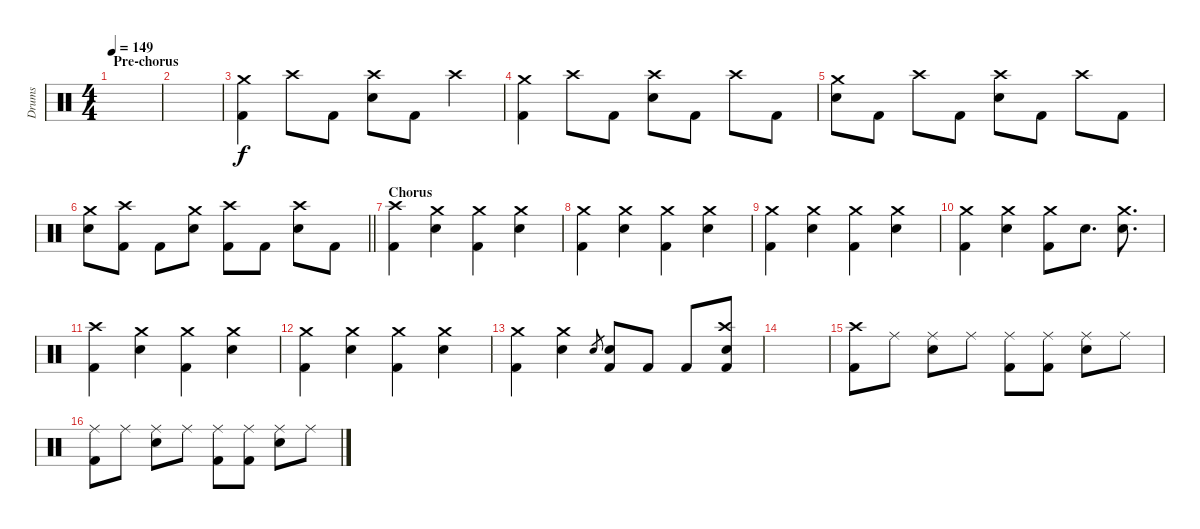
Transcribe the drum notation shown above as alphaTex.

\track ("Drums" "Drums") {instrument percussion}
\staff {score}
\articulation defaults
\ts (4 4)
\section ("" "Pre-chorus")
\tempo 149
\clef neutral
\ks c
|
|
("Crash medium (hit)" "Kick (hit) 2").4 "Crash high (hit)".8 "Kick (hit) 2".8 ("Crash high (hit)" "Electric Snare (hit)").8 "Kick (hit) 2".8 "Crash high (hit)".4 |
("Crash medium (hit)" "Kick (hit) 2").4 "Crash high (hit)".8 "Kick (hit) 2".8 ("Crash high (hit)" "Electric Snare (hit)").8 "Kick (hit) 2".8 "Crash high (hit)".8 "Kick (hit) 2".8 |
("Crash medium (hit)" "Electric Snare (hit)").8 "Kick (hit) 2".8 "Crash high (hit)".8 "Kick (hit) 2".8 ("Crash high (hit)" "Electric Snare (hit)").8 "Kick (hit) 2".8 "Crash high (hit)".8 "Kick (hit) 2".8 |
\barLineRight lightlight
("Crash medium (hit)" "Electric Snare (hit)").8 ("Crash high (hit)" "Kick (hit) 2").8 "Kick (hit) 2".8 ("Crash medium (hit)" "Electric Snare (hit)").8 ("Crash high (hit)" "Kick (hit) 2").8 "Kick (hit) 2".8 ("Crash high (hit)" "Electric Snare (hit)").8 "Kick (hit) 2".8 |
\section ("" "Chorus")
("Crash high (hit)" "Kick (hit) 2").4 ("Crash medium (hit)" "Electric Snare (hit)").4 ("Crash medium (hit)" "Kick (hit) 2").4 ("Crash medium (hit)" "Electric Snare (hit)").4 |
("Crash medium (hit)" "Kick (hit) 2").4 ("Crash medium (hit)" "Electric Snare (hit)").4 ("Crash medium (hit)" "Kick (hit) 2").4 ("Crash medium (hit)" "Electric Snare (hit)").4 |
("Crash medium (hit)" "Kick (hit) 2").4 ("Crash medium (hit)" "Electric Snare (hit)").4 ("Crash medium (hit)" "Kick (hit) 2").4 ("Crash medium (hit)" "Electric Snare (hit)").4 |
("Crash medium (hit)" "Kick (hit) 2").4 ("Crash medium (hit)" "Electric Snare (hit)").4 ("Crash medium (hit)" "Kick (hit) 2").8 "Electric Snare (hit)".8{d} ("Crash medium (hit)" "Electric Snare (hit)").8{d} |
("Crash high (hit)" "Kick (hit) 2").4 ("Crash medium (hit)" "Electric Snare (hit)").4 ("Crash medium (hit)" "Kick (hit) 2").4 ("Crash medium (hit)" "Electric Snare (hit)").4 |
("Crash medium (hit)" "Kick (hit) 2").4 ("Crash medium (hit)" "Electric Snare (hit)").4 ("Crash medium (hit)" "Kick (hit) 2").4 ("Crash medium (hit)" "Electric Snare (hit)").4 |
("Crash medium (hit)" "Kick (hit) 2").4 ("Crash medium (hit)" "Electric Snare (hit)").4 "Electric Snare (hit)".8{gr} ("Electric Snare (hit)" "Kick (hit) 2").8 "Kick (hit) 2".8 "Kick (hit) 2".8 ("Crash high (hit)" "Electric Snare (hit)" "Kick (hit) 2").8 |
|
("Crash high (hit)" "Kick (hit) 2").8 "Ride (middle)".8 ("Ride (middle)" "Electric Snare (hit)").8 "Ride (middle)".8 ("Ride (middle)" "Kick (hit) 2").8 ("Ride (middle)" "Kick (hit) 2").8 ("Ride (middle)" "Electric Snare (hit)").8 "Ride (middle)".8 |
("Ride (middle)" "Kick (hit) 2").8 "Ride (middle)".8 ("Ride (middle)" "Electric Snare (hit)").8 "Ride (middle)".8 ("Ride (middle)" "Kick (hit) 2").8 ("Ride (middle)" "Kick (hit) 2").8 ("Ride (middle)" "Electric Snare (hit)").8 "Ride (middle)".8
